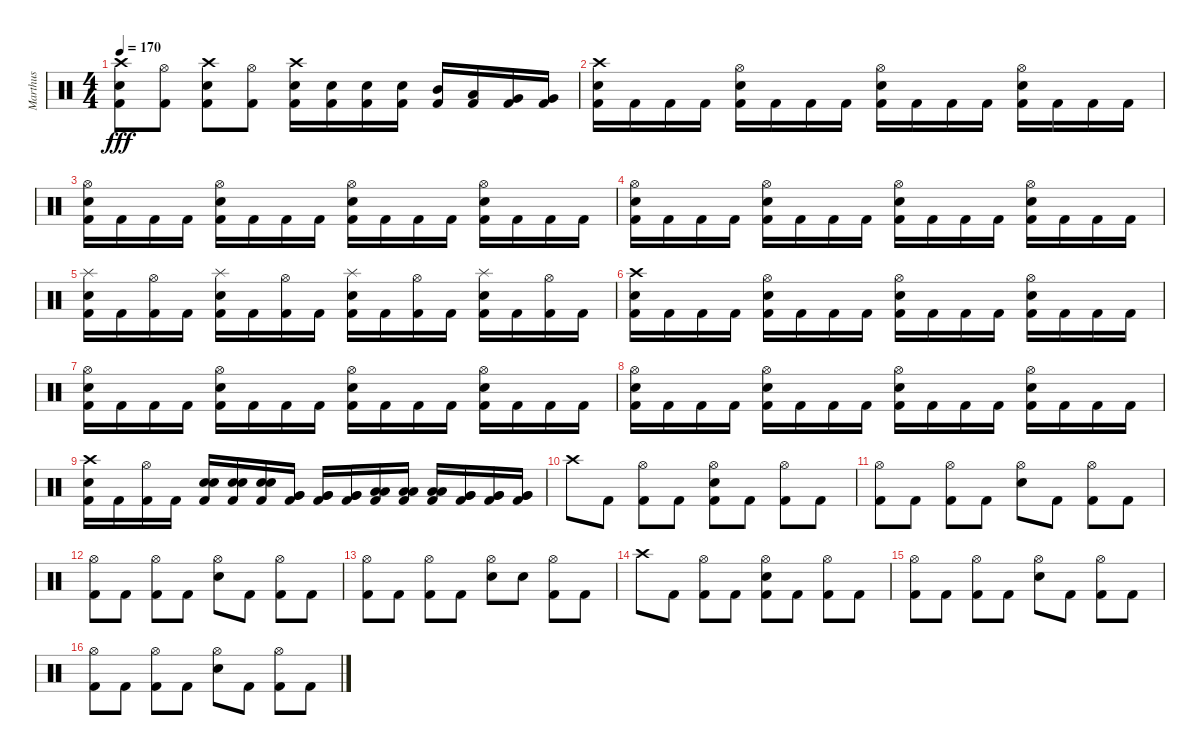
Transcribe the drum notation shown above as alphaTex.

\track ("Marthus" "Marthus") {instrument percussion}
\staff {score}
\articulation defaults
\ts (4 4)
\tempo 170
\clef neutral
\ks c
("Crash high (hit)" "Electric Snare (hit)" "Kick (hit) 2").8{dy fff} ("Hi-Hat (open)" "Kick (hit) 2").8 ("Crash high (hit)" "Electric Snare (hit)" "Kick (hit) 2").8 ("Hi-Hat (open)" "Kick (hit) 2").8 ("Crash high (hit)" "Electric Snare (hit)" "Kick (hit) 2").16 ("Electric Snare (hit)" "Kick (hit) 2").16 ("Electric Snare (hit)" "Kick (hit) 2").16 ("Electric Snare (hit)" "Kick (hit) 2").16 ("Mid Tom (hit)" "Kick (hit) 2").16 ("Low Tom (hit)" "Kick (hit) 2").16 ("Very Low Tom (hit)" "Kick (hit) 2").16 ("Very Low Tom (hit)" "Kick (hit) 2").16 |
("Crash high (hit)" "Electric Snare (hit)" "Kick (hit) 2").16 "Kick (hit) 2".16 "Kick (hit) 2".16 "Kick (hit) 2".16 ("Hi-Hat (open)" "Electric Snare (hit)" "Kick (hit) 2").16 "Kick (hit) 2".16 "Kick (hit) 2".16 "Kick (hit) 2".16 ("Hi-Hat (open)" "Electric Snare (hit)" "Kick (hit) 2").16 "Kick (hit) 2".16 "Kick (hit) 2".16 "Kick (hit) 2".16 ("Hi-Hat (open)" "Electric Snare (hit)" "Kick (hit) 2").16 "Kick (hit) 2".16 "Kick (hit) 2".16 "Kick (hit) 2".16 |
("Hi-Hat (open)" "Electric Snare (hit)" "Kick (hit) 2").16 "Kick (hit) 2".16 "Kick (hit) 2".16 "Kick (hit) 2".16 ("Hi-Hat (open)" "Electric Snare (hit)" "Kick (hit) 2").16 "Kick (hit) 2".16 "Kick (hit) 2".16 "Kick (hit) 2".16 ("Hi-Hat (open)" "Electric Snare (hit)" "Kick (hit) 2").16 "Kick (hit) 2".16 "Kick (hit) 2".16 "Kick (hit) 2".16 ("Hi-Hat (open)" "Electric Snare (hit)" "Kick (hit) 2").16 "Kick (hit) 2".16 "Kick (hit) 2".16 "Kick (hit) 2".16 |
("Hi-Hat (open)" "Electric Snare (hit)" "Kick (hit) 2").16 "Kick (hit) 2".16 "Kick (hit) 2".16 "Kick (hit) 2".16 ("Hi-Hat (open)" "Electric Snare (hit)" "Kick (hit) 2").16 "Kick (hit) 2".16 "Kick (hit) 2".16 "Kick (hit) 2".16 ("Hi-Hat (open)" "Electric Snare (hit)" "Kick (hit) 2").16 "Kick (hit) 2".16 "Kick (hit) 2".16 "Kick (hit) 2".16 ("Hi-Hat (open)" "Electric Snare (hit)" "Kick (hit) 2").16 "Kick (hit) 2".16 "Kick (hit) 2".16 "Kick (hit) 2".16 |
("Splash (hit)" "Electric Snare (hit)" "Kick (hit) 2").16 "Kick (hit) 2".16 ("Hi-Hat (open)" "Kick (hit) 2").16 "Kick (hit) 2".16 ("Splash (hit)" "Electric Snare (hit)" "Kick (hit) 2").16 "Kick (hit) 2".16 ("Hi-Hat (open)" "Kick (hit) 2").16 "Kick (hit) 2".16 ("Splash (hit)" "Electric Snare (hit)" "Kick (hit) 2").16 "Kick (hit) 2".16 ("Hi-Hat (open)" "Kick (hit) 2").16 "Kick (hit) 2".16 ("Splash (hit)" "Electric Snare (hit)" "Kick (hit) 2").16 "Kick (hit) 2".16 ("Hi-Hat (open)" "Kick (hit) 2").16 "Kick (hit) 2".16 |
("Crash high (hit)" "Electric Snare (hit)" "Kick (hit) 2").16 "Kick (hit) 2".16 "Kick (hit) 2".16 "Kick (hit) 2".16 ("Hi-Hat (open)" "Electric Snare (hit)" "Kick (hit) 2").16 "Kick (hit) 2".16 "Kick (hit) 2".16 "Kick (hit) 2".16 ("Hi-Hat (open)" "Electric Snare (hit)" "Kick (hit) 2").16 "Kick (hit) 2".16 "Kick (hit) 2".16 "Kick (hit) 2".16 ("Hi-Hat (open)" "Electric Snare (hit)" "Kick (hit) 2").16 "Kick (hit) 2".16 "Kick (hit) 2".16 "Kick (hit) 2".16 |
("Hi-Hat (open)" "Electric Snare (hit)" "Kick (hit) 2").16 "Kick (hit) 2".16 "Kick (hit) 2".16 "Kick (hit) 2".16 ("Hi-Hat (open)" "Electric Snare (hit)" "Kick (hit) 2").16 "Kick (hit) 2".16 "Kick (hit) 2".16 "Kick (hit) 2".16 ("Hi-Hat (open)" "Electric Snare (hit)" "Kick (hit) 2").16 "Kick (hit) 2".16 "Kick (hit) 2".16 "Kick (hit) 2".16 ("Hi-Hat (open)" "Electric Snare (hit)" "Kick (hit) 2").16 "Kick (hit) 2".16 "Kick (hit) 2".16 "Kick (hit) 2".16 |
("Hi-Hat (open)" "Electric Snare (hit)" "Kick (hit) 2").16 "Kick (hit) 2".16 "Kick (hit) 2".16 "Kick (hit) 2".16 ("Hi-Hat (open)" "Electric Snare (hit)" "Kick (hit) 2").16 "Kick (hit) 2".16 "Kick (hit) 2".16 "Kick (hit) 2".16 ("Hi-Hat (open)" "Electric Snare (hit)" "Kick (hit) 2").16 "Kick (hit) 2".16 "Kick (hit) 2".16 "Kick (hit) 2".16 ("Hi-Hat (open)" "Electric Snare (hit)" "Kick (hit) 2").16 "Kick (hit) 2".16 "Kick (hit) 2".16 "Kick (hit) 2".16 |
("Crash high (hit)" "Electric Snare (hit)" "Kick (hit) 2").16 "Kick (hit) 2".16 ("Hi-Hat (open)" "Kick (hit) 2").16 "Kick (hit) 2".16 ("Electric Snare (hit)" "Electric Snare (hit)" "Kick (hit) 2").16 ("Electric Snare (hit)" "Electric Snare (hit)" "Kick (hit) 2").16 ("Electric Snare (hit)" "Electric Snare (hit)" "Kick (hit) 2").16 ("Very Low Tom (hit)" "Very Low Tom (hit)" "Kick (hit) 2").16 ("Very Low Tom (hit)" "Very Low Tom (hit)" "Kick (hit) 2").16 ("Very Low Tom (hit)" "Very Low Tom (hit)" "Kick (hit) 2").16 ("Low Tom (hit)" "Low Tom (hit)" "Kick (hit) 2").16 ("Low Tom (hit)" "Low Tom (hit)" "Kick (hit) 2").16 ("Low Tom (hit)" "Low Tom (hit)" "Kick (hit) 2").16 ("Very Low Tom (hit)" "Very Low Tom (hit)" "Kick (hit) 2").16 ("Very Low Tom (hit)" "Very Low Tom (hit)" "Kick (hit) 2").16 ("Very Low Tom (hit)" "Very Low Tom (hit)" "Kick (hit) 2").16 |
"Crash high (hit)".8 "Kick (hit) 2".8 ("Hi-Hat (open)" "Kick (hit) 2").8 "Kick (hit) 2".8 ("Hi-Hat (open)" "Electric Snare (hit)" "Kick (hit) 2").8 "Kick (hit) 2".8 ("Hi-Hat (open)" "Kick (hit) 2").8 "Kick (hit) 2".8 |
("Hi-Hat (open)" "Kick (hit) 2").8 "Kick (hit) 2".8 ("Hi-Hat (open)" "Kick (hit) 2").8 "Kick (hit) 2".8 ("Hi-Hat (open)" "Electric Snare (hit)").8 "Kick (hit) 2".8 ("Hi-Hat (open)" "Kick (hit) 2").8 "Kick (hit) 2".8 |
("Hi-Hat (open)" "Kick (hit) 2").8 "Kick (hit) 2".8 ("Hi-Hat (open)" "Kick (hit) 2").8 "Kick (hit) 2".8 ("Hi-Hat (open)" "Electric Snare (hit)").8 "Kick (hit) 2".8 ("Hi-Hat (open)" "Kick (hit) 2").8 "Kick (hit) 2".8 |
("Hi-Hat (open)" "Kick (hit) 2").8 "Kick (hit) 2".8 ("Hi-Hat (open)" "Kick (hit) 2").8 "Kick (hit) 2".8 ("Hi-Hat (open)" "Electric Snare (hit)").8 "Electric Snare (hit)".8 ("Hi-Hat (open)" "Kick (hit) 2").8 "Kick (hit) 2".8 |
"Crash high (hit)".8 "Kick (hit) 2".8 ("Hi-Hat (open)" "Kick (hit) 2").8 "Kick (hit) 2".8 ("Hi-Hat (open)" "Electric Snare (hit)" "Kick (hit) 2").8 "Kick (hit) 2".8 ("Hi-Hat (open)" "Kick (hit) 2").8 "Kick (hit) 2".8 |
("Hi-Hat (open)" "Kick (hit) 2").8 "Kick (hit) 2".8 ("Hi-Hat (open)" "Kick (hit) 2").8 "Kick (hit) 2".8 ("Hi-Hat (open)" "Electric Snare (hit)").8 "Kick (hit) 2".8 ("Hi-Hat (open)" "Kick (hit) 2").8 "Kick (hit) 2".8 |
("Hi-Hat (open)" "Kick (hit) 2").8 "Kick (hit) 2".8 ("Hi-Hat (open)" "Kick (hit) 2").8 "Kick (hit) 2".8 ("Hi-Hat (open)" "Electric Snare (hit)").8 "Kick (hit) 2".8 ("Hi-Hat (open)" "Kick (hit) 2").8 "Kick (hit) 2".8
